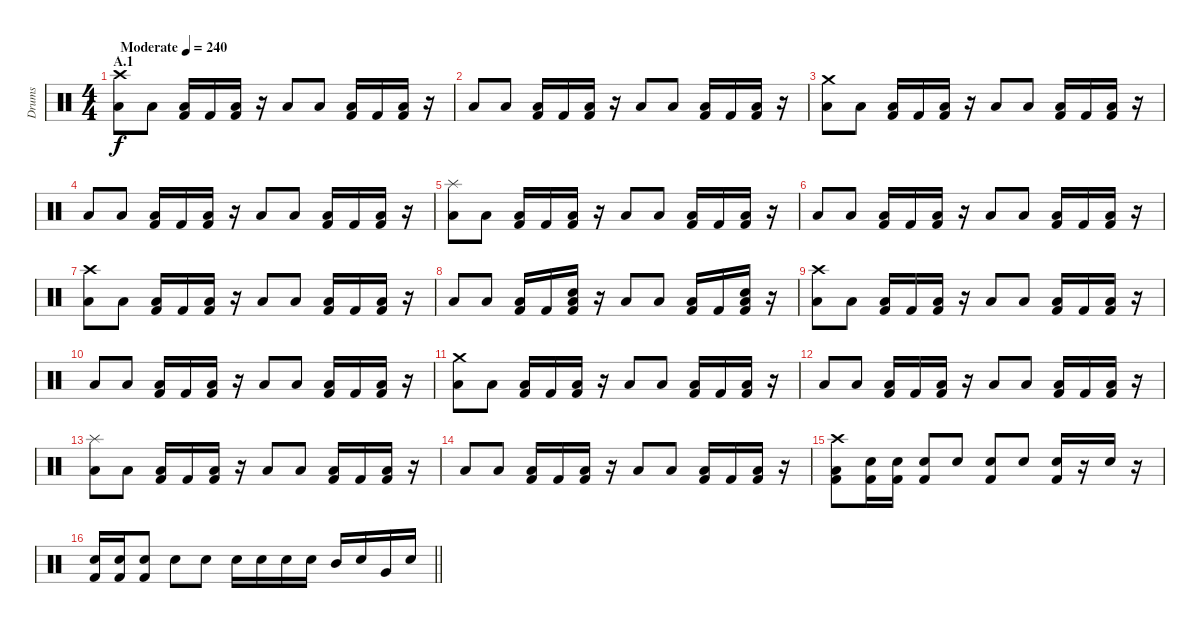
\track ("Drums" "Drums") {instrument percussion}
\staff {score}
\articulation defaults
\ts (4 4)
\section ("" "A.1")
\tempo (240 "Moderate")
\clef neutral
\ks c
("Crash high (hit)" "Low Floor Tom (hit)").8{dy f} "Low Floor Tom (hit)".8 ("Low Floor Tom (hit)" "Kick (hit) 2").16 "Kick (hit) 2".16 ("Low Floor Tom (hit)" "Kick (hit) 2").16 r.16 "Low Floor Tom (hit)".8 "Low Floor Tom (hit)".8 ("Low Floor Tom (hit)" "Kick (hit) 2").16 "Kick (hit) 2".16 ("Low Floor Tom (hit)" "Kick (hit) 2").16 r.16 |
"Low Floor Tom (hit)".8 "Low Floor Tom (hit)".8 ("Low Floor Tom (hit)" "Kick (hit) 2").16 "Kick (hit) 2".16 ("Low Floor Tom (hit)" "Kick (hit) 2").16 r.16 "Low Floor Tom (hit)".8 "Low Floor Tom (hit)".8 ("Low Floor Tom (hit)" "Kick (hit) 2").16 "Kick (hit) 2".16 ("Low Floor Tom (hit)" "Kick (hit) 2").16 r.16 |
("Crash medium (hit)" "Low Floor Tom (hit)").8 "Low Floor Tom (hit)".8 ("Low Floor Tom (hit)" "Kick (hit) 2").16 "Kick (hit) 2".16 ("Low Floor Tom (hit)" "Kick (hit) 2").16 r.16 "Low Floor Tom (hit)".8 "Low Floor Tom (hit)".8 ("Low Floor Tom (hit)" "Kick (hit) 2").16 "Kick (hit) 2".16 ("Low Floor Tom (hit)" "Kick (hit) 2").16 r.16 |
"Low Floor Tom (hit)".8 "Low Floor Tom (hit)".8 ("Low Floor Tom (hit)" "Kick (hit) 2").16 "Kick (hit) 2".16 ("Low Floor Tom (hit)" "Kick (hit) 2").16 r.16 "Low Floor Tom (hit)".8 "Low Floor Tom (hit)".8 ("Low Floor Tom (hit)" "Kick (hit) 2").16 "Kick (hit) 2".16 ("Low Floor Tom (hit)" "Kick (hit) 2").16 r.16 |
("Splash (hit)" "Low Floor Tom (hit)").8 "Low Floor Tom (hit)".8 ("Low Floor Tom (hit)" "Kick (hit) 2").16 "Kick (hit) 2".16 ("Low Floor Tom (hit)" "Kick (hit) 2").16 r.16 "Low Floor Tom (hit)".8 "Low Floor Tom (hit)".8 ("Low Floor Tom (hit)" "Kick (hit) 2").16 "Kick (hit) 2".16 ("Low Floor Tom (hit)" "Kick (hit) 2").16 r.16 |
"Low Floor Tom (hit)".8 "Low Floor Tom (hit)".8 ("Low Floor Tom (hit)" "Kick (hit) 2").16 "Kick (hit) 2".16 ("Low Floor Tom (hit)" "Kick (hit) 2").16 r.16 "Low Floor Tom (hit)".8 "Low Floor Tom (hit)".8 ("Low Floor Tom (hit)" "Kick (hit) 2").16 "Kick (hit) 2".16 ("Low Floor Tom (hit)" "Kick (hit) 2").16 r.16 |
("Crash high (hit)" "Low Floor Tom (hit)").8 "Low Floor Tom (hit)".8 ("Low Floor Tom (hit)" "Kick (hit) 2").16 "Kick (hit) 2".16 ("Low Floor Tom (hit)" "Kick (hit) 2").16 r.16 "Low Floor Tom (hit)".8 "Low Floor Tom (hit)".8 ("Low Floor Tom (hit)" "Kick (hit) 2").16 "Kick (hit) 2".16 ("Low Floor Tom (hit)" "Kick (hit) 2").16 r.16 |
"Low Floor Tom (hit)".8 "Low Floor Tom (hit)".8 ("Low Floor Tom (hit)" "Kick (hit) 2").16 "Kick (hit) 2".16 ("Electric Snare (hit)" "Low Floor Tom (hit)" "Kick (hit) 2").16 r.16 "Low Floor Tom (hit)".8 "Low Floor Tom (hit)".8 ("Low Floor Tom (hit)" "Kick (hit) 2").16 "Kick (hit) 2".16 ("Electric Snare (hit)" "Low Floor Tom (hit)" "Kick (hit) 2").16 r.16 |
("Crash high (hit)" "Low Floor Tom (hit)").8 "Low Floor Tom (hit)".8 ("Low Floor Tom (hit)" "Kick (hit) 2").16 "Kick (hit) 2".16 ("Low Floor Tom (hit)" "Kick (hit) 2").16 r.16 "Low Floor Tom (hit)".8 "Low Floor Tom (hit)".8 ("Low Floor Tom (hit)" "Kick (hit) 2").16 "Kick (hit) 2".16 ("Low Floor Tom (hit)" "Kick (hit) 2").16 r.16 |
"Low Floor Tom (hit)".8 "Low Floor Tom (hit)".8 ("Low Floor Tom (hit)" "Kick (hit) 2").16 "Kick (hit) 2".16 ("Low Floor Tom (hit)" "Kick (hit) 2").16 r.16 "Low Floor Tom (hit)".8 "Low Floor Tom (hit)".8 ("Low Floor Tom (hit)" "Kick (hit) 2").16 "Kick (hit) 2".16 ("Low Floor Tom (hit)" "Kick (hit) 2").16 r.16 |
("Crash medium (hit)" "Low Floor Tom (hit)").8 "Low Floor Tom (hit)".8 ("Low Floor Tom (hit)" "Kick (hit) 2").16 "Kick (hit) 2".16 ("Low Floor Tom (hit)" "Kick (hit) 2").16 r.16 "Low Floor Tom (hit)".8 "Low Floor Tom (hit)".8 ("Low Floor Tom (hit)" "Kick (hit) 2").16 "Kick (hit) 2".16 ("Low Floor Tom (hit)" "Kick (hit) 2").16 r.16 |
"Low Floor Tom (hit)".8 "Low Floor Tom (hit)".8 ("Low Floor Tom (hit)" "Kick (hit) 2").16 "Kick (hit) 2".16 ("Low Floor Tom (hit)" "Kick (hit) 2").16 r.16 "Low Floor Tom (hit)".8 "Low Floor Tom (hit)".8 ("Low Floor Tom (hit)" "Kick (hit) 2").16 "Kick (hit) 2".16 ("Low Floor Tom (hit)" "Kick (hit) 2").16 r.16 |
("Splash (hit)" "Low Floor Tom (hit)").8 "Low Floor Tom (hit)".8 ("Low Floor Tom (hit)" "Kick (hit) 2").16 "Kick (hit) 2".16 ("Low Floor Tom (hit)" "Kick (hit) 2").16 r.16 "Low Floor Tom (hit)".8 "Low Floor Tom (hit)".8 ("Low Floor Tom (hit)" "Kick (hit) 2").16 "Kick (hit) 2".16 ("Low Floor Tom (hit)" "Kick (hit) 2").16 r.16 |
"Low Floor Tom (hit)".8 "Low Floor Tom (hit)".8 ("Low Floor Tom (hit)" "Kick (hit) 2").16 "Kick (hit) 2".16 ("Low Floor Tom (hit)" "Kick (hit) 2").16 r.16 "Low Floor Tom (hit)".8 "Low Floor Tom (hit)".8 ("Low Floor Tom (hit)" "Kick (hit) 2").16 "Kick (hit) 2".16 ("Low Floor Tom (hit)" "Kick (hit) 2").16 r.16 |
("Crash high (hit)" "Low Floor Tom (hit)" "Kick (hit) 2").8 ("Electric Snare (hit)" "Kick (hit) 2").16 ("Electric Snare (hit)" "Kick (hit) 2").16 ("Electric Snare (hit)" "Kick (hit) 2").8 "Electric Snare (hit)".8 ("Electric Snare (hit)" "Kick (hit) 2").8 "Electric Snare (hit)".8 ("Electric Snare (hit)" "Kick (hit) 2").16 r.16 "Electric Snare (hit)".16 r.16 |
\barLineRight lightlight
("Electric Snare (hit)" "Kick (hit) 2").16 ("Electric Snare (hit)" "Kick (hit) 2").16 ("Electric Snare (hit)" "Kick (hit) 2").8 "Electric Snare (hit)".8 "Electric Snare (hit)".8 "Electric Snare (hit)".16 "Electric Snare (hit)".16 "Electric Snare (hit)".16 "Electric Snare (hit)".16 "Mid Tom (hit)".16 "Electric Snare (hit)".16 "Very Low Tom (hit)".16 "Electric Snare (hit)".16
